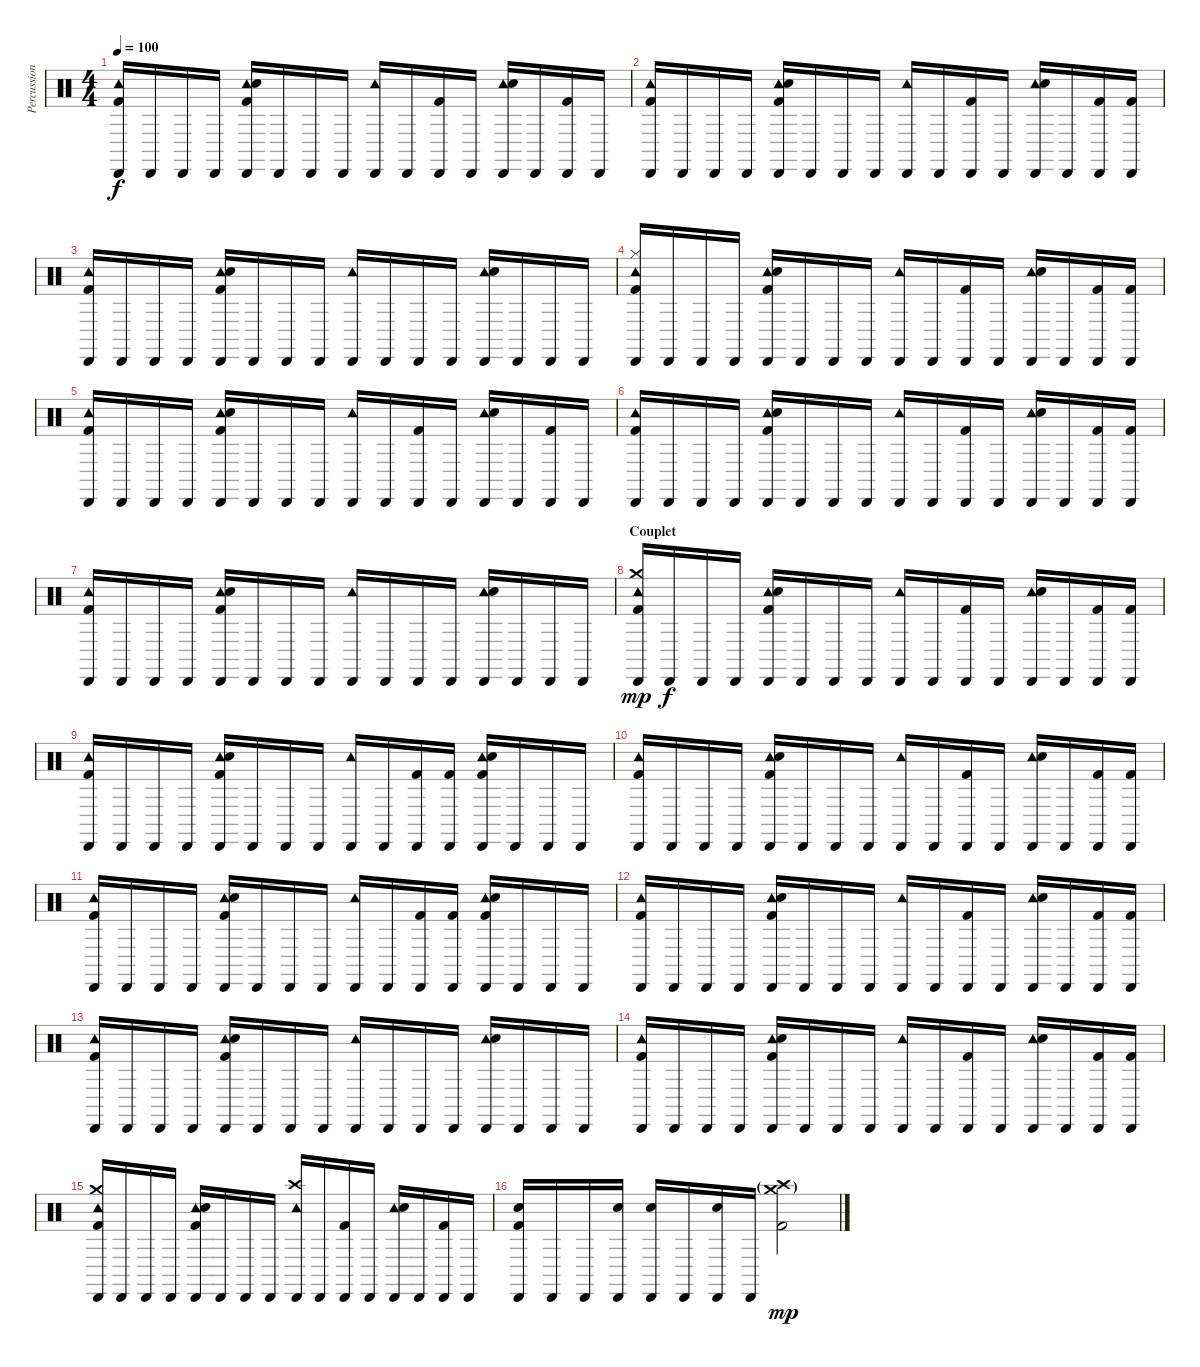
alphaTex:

\track ("Percussions" "Percussion") {instrument percussion}
\staff {score}
\articulation defaults
\ts (4 4)
\tempo 100
\clef neutral
\ks c
("Cabasa (hit)" "Tambourine (hit)" "Kick (hit) 2").16{dy f} "Cabasa (hit)".16 "Cabasa (hit)".16 "Cabasa (hit)".16 ("Cabasa (hit)" "Tambourine (hit)" "Hand Clap (hit)" "Kick (hit) 2").16 "Cabasa (hit)".16 "Cabasa (hit)".16 "Cabasa (hit)".16 ("Cabasa (hit)" "Tambourine (hit)").16 "Cabasa (hit)".16 ("Cabasa (hit)" "Kick (hit) 2").16 "Cabasa (hit)".16 ("Cabasa (hit)" "Tambourine (hit)" "Hand Clap (hit)").16 "Cabasa (hit)".16 ("Cabasa (hit)" "Kick (hit) 2").16 "Cabasa (hit)".16 |
("Cabasa (hit)" "Tambourine (hit)" "Kick (hit) 2").16 "Cabasa (hit)".16 "Cabasa (hit)".16 "Cabasa (hit)".16 ("Cabasa (hit)" "Tambourine (hit)" "Hand Clap (hit)" "Kick (hit) 2").16 "Cabasa (hit)".16 "Cabasa (hit)".16 "Cabasa (hit)".16 ("Cabasa (hit)" "Tambourine (hit)").16 "Cabasa (hit)".16 ("Cabasa (hit)" "Kick (hit) 2").16 "Cabasa (hit)".16 ("Cabasa (hit)" "Tambourine (hit)" "Hand Clap (hit)").16 "Cabasa (hit)".16 ("Cabasa (hit)" "Kick (hit) 2").16 ("Cabasa (hit)" "Kick (hit) 2").16 |
("Cabasa (hit)" "Tambourine (hit)" "Kick (hit) 2").16 "Cabasa (hit)".16 "Cabasa (hit)".16 "Cabasa (hit)".16 ("Cabasa (hit)" "Tambourine (hit)" "Hand Clap (hit)" "Kick (hit) 2").16 "Cabasa (hit)".16 "Cabasa (hit)".16 "Cabasa (hit)".16 ("Cabasa (hit)" "Tambourine (hit)").16 "Cabasa (hit)".16 "Cabasa (hit)".16 "Cabasa (hit)".16 ("Cabasa (hit)" "Tambourine (hit)" "Hand Clap (hit)").16 "Cabasa (hit)".16 "Cabasa (hit)".16 "Cabasa (hit)".16 |
("Cabasa (hit)" "Tambourine (hit)" "Hi-Hat (closed)" "Kick (hit) 2").16 "Cabasa (hit)".16 "Cabasa (hit)".16 "Cabasa (hit)".16 ("Cabasa (hit)" "Tambourine (hit)" "Hand Clap (hit)" "Kick (hit) 2").16 "Cabasa (hit)".16 "Cabasa (hit)".16 "Cabasa (hit)".16 ("Cabasa (hit)" "Tambourine (hit)").16 "Cabasa (hit)".16 ("Cabasa (hit)" "Kick (hit) 2").16 "Cabasa (hit)".16 ("Cabasa (hit)" "Tambourine (hit)" "Hand Clap (hit)").16 "Cabasa (hit)".16 ("Cabasa (hit)" "Kick (hit) 2").16 ("Cabasa (hit)" "Kick (hit) 2").16 |
("Cabasa (hit)" "Tambourine (hit)" "Kick (hit) 2").16 "Cabasa (hit)".16 "Cabasa (hit)".16 "Cabasa (hit)".16 ("Cabasa (hit)" "Tambourine (hit)" "Hand Clap (hit)" "Kick (hit) 2").16 "Cabasa (hit)".16 "Cabasa (hit)".16 "Cabasa (hit)".16 ("Cabasa (hit)" "Tambourine (hit)").16 "Cabasa (hit)".16 ("Cabasa (hit)" "Kick (hit) 2").16 "Cabasa (hit)".16 ("Cabasa (hit)" "Tambourine (hit)" "Hand Clap (hit)").16 "Cabasa (hit)".16 ("Cabasa (hit)" "Kick (hit) 2").16 "Cabasa (hit)".16 |
("Cabasa (hit)" "Tambourine (hit)" "Kick (hit) 2").16 "Cabasa (hit)".16 "Cabasa (hit)".16 "Cabasa (hit)".16 ("Cabasa (hit)" "Tambourine (hit)" "Hand Clap (hit)" "Kick (hit) 2").16 "Cabasa (hit)".16 "Cabasa (hit)".16 "Cabasa (hit)".16 ("Cabasa (hit)" "Tambourine (hit)").16 "Cabasa (hit)".16 ("Cabasa (hit)" "Kick (hit) 2").16 "Cabasa (hit)".16 ("Cabasa (hit)" "Tambourine (hit)" "Hand Clap (hit)").16 "Cabasa (hit)".16 ("Cabasa (hit)" "Kick (hit) 2").16 ("Cabasa (hit)" "Kick (hit) 2").16 |
("Cabasa (hit)" "Tambourine (hit)" "Kick (hit) 2").16 "Cabasa (hit)".16 "Cabasa (hit)".16 "Cabasa (hit)".16 ("Cabasa (hit)" "Tambourine (hit)" "Hand Clap (hit)" "Kick (hit) 2").16 "Cabasa (hit)".16 "Cabasa (hit)".16 "Cabasa (hit)".16 ("Cabasa (hit)" "Tambourine (hit)").16 "Cabasa (hit)".16 "Cabasa (hit)".16 "Cabasa (hit)".16 ("Cabasa (hit)" "Tambourine (hit)" "Hand Clap (hit)").16 "Cabasa (hit)".16 "Cabasa (hit)".16 "Cabasa (hit)".16 |
\section ("" "Couplet")
("Cabasa (hit)" "Tambourine (hit)" "Crash medium (hit)" "Kick (hit) 2").16{dy mp} "Cabasa (hit)".16{dy f} "Cabasa (hit)".16 "Cabasa (hit)".16 ("Cabasa (hit)" "Tambourine (hit)" "Hand Clap (hit)" "Kick (hit) 2").16 "Cabasa (hit)".16 "Cabasa (hit)".16 "Cabasa (hit)".16 ("Cabasa (hit)" "Tambourine (hit)").16 "Cabasa (hit)".16 ("Cabasa (hit)" "Kick (hit) 2").16 "Cabasa (hit)".16 ("Cabasa (hit)" "Tambourine (hit)" "Hand Clap (hit)").16 "Cabasa (hit)".16 ("Cabasa (hit)" "Kick (hit) 2").16 ("Cabasa (hit)" "Kick (hit) 2").16 |
("Cabasa (hit)" "Tambourine (hit)" "Kick (hit) 2").16 "Cabasa (hit)".16 "Cabasa (hit)".16 "Cabasa (hit)".16 ("Cabasa (hit)" "Tambourine (hit)" "Hand Clap (hit)" "Kick (hit) 2").16 "Cabasa (hit)".16 "Cabasa (hit)".16 "Cabasa (hit)".16 ("Cabasa (hit)" "Tambourine (hit)").16 "Cabasa (hit)".16 ("Cabasa (hit)" "Kick (hit) 2").16 ("Cabasa (hit)" "Kick (hit) 2").16 ("Cabasa (hit)" "Tambourine (hit)" "Hand Clap (hit)" "Kick (hit) 2").16 "Cabasa (hit)".16 "Cabasa (hit)".16 "Cabasa (hit)".16 |
("Cabasa (hit)" "Tambourine (hit)" "Kick (hit) 2").16 "Cabasa (hit)".16 "Cabasa (hit)".16 "Cabasa (hit)".16 ("Cabasa (hit)" "Tambourine (hit)" "Hand Clap (hit)" "Kick (hit) 2").16 "Cabasa (hit)".16 "Cabasa (hit)".16 "Cabasa (hit)".16 ("Cabasa (hit)" "Tambourine (hit)").16 "Cabasa (hit)".16 ("Cabasa (hit)" "Kick (hit) 2").16 "Cabasa (hit)".16 ("Cabasa (hit)" "Tambourine (hit)" "Hand Clap (hit)").16 "Cabasa (hit)".16 ("Cabasa (hit)" "Kick (hit) 2").16 ("Cabasa (hit)" "Kick (hit) 2").16 |
("Cabasa (hit)" "Tambourine (hit)" "Kick (hit) 2").16 "Cabasa (hit)".16 "Cabasa (hit)".16 "Cabasa (hit)".16 ("Cabasa (hit)" "Tambourine (hit)" "Hand Clap (hit)" "Kick (hit) 2").16 "Cabasa (hit)".16 "Cabasa (hit)".16 "Cabasa (hit)".16 ("Cabasa (hit)" "Tambourine (hit)").16 "Cabasa (hit)".16 ("Cabasa (hit)" "Kick (hit) 2").16 ("Cabasa (hit)" "Kick (hit) 2").16 ("Cabasa (hit)" "Tambourine (hit)" "Hand Clap (hit)" "Kick (hit) 2").16 "Cabasa (hit)".16 "Cabasa (hit)".16 "Cabasa (hit)".16 |
("Cabasa (hit)" "Tambourine (hit)" "Kick (hit) 2").16 "Cabasa (hit)".16 "Cabasa (hit)".16 "Cabasa (hit)".16 ("Cabasa (hit)" "Tambourine (hit)" "Hand Clap (hit)" "Kick (hit) 2").16 "Cabasa (hit)".16 "Cabasa (hit)".16 "Cabasa (hit)".16 ("Cabasa (hit)" "Tambourine (hit)").16 "Cabasa (hit)".16 ("Cabasa (hit)" "Kick (hit) 2").16 "Cabasa (hit)".16 ("Cabasa (hit)" "Tambourine (hit)" "Hand Clap (hit)").16 "Cabasa (hit)".16 ("Cabasa (hit)" "Kick (hit) 2").16 ("Cabasa (hit)" "Kick (hit) 2").16 |
("Cabasa (hit)" "Tambourine (hit)" "Kick (hit) 2").16 "Cabasa (hit)".16 "Cabasa (hit)".16 "Cabasa (hit)".16 ("Cabasa (hit)" "Tambourine (hit)" "Hand Clap (hit)" "Kick (hit) 2").16 "Cabasa (hit)".16 "Cabasa (hit)".16 "Cabasa (hit)".16 ("Cabasa (hit)" "Tambourine (hit)").16 "Cabasa (hit)".16 "Cabasa (hit)".16 "Cabasa (hit)".16 ("Cabasa (hit)" "Tambourine (hit)" "Hand Clap (hit)").16 "Cabasa (hit)".16 "Cabasa (hit)".16 "Cabasa (hit)".16 |
("Cabasa (hit)" "Tambourine (hit)" "Kick (hit) 2").16 "Cabasa (hit)".16 "Cabasa (hit)".16 "Cabasa (hit)".16 ("Cabasa (hit)" "Tambourine (hit)" "Hand Clap (hit)" "Kick (hit) 2").16 "Cabasa (hit)".16 "Cabasa (hit)".16 "Cabasa (hit)".16 ("Cabasa (hit)" "Tambourine (hit)").16 "Cabasa (hit)".16 ("Cabasa (hit)" "Kick (hit) 2").16 "Cabasa (hit)".16 ("Cabasa (hit)" "Tambourine (hit)" "Hand Clap (hit)").16 "Cabasa (hit)".16 ("Cabasa (hit)" "Kick (hit) 2").16 ("Cabasa (hit)" "Kick (hit) 2").16 |
("Cabasa (hit)" "Tambourine (hit)" "Crash medium (hit)" "Kick (hit) 2").16 "Cabasa (hit)".16 "Cabasa (hit)".16 "Cabasa (hit)".16 ("Cabasa (hit)" "Tambourine (hit)" "Hand Clap (hit)" "Kick (hit) 2").16 "Cabasa (hit)".16 "Cabasa (hit)".16 "Cabasa (hit)".16 ("Cabasa (hit)" "Tambourine (hit)" "Crash high (hit)").16 "Cabasa (hit)".16 ("Cabasa (hit)" "Kick (hit) 2").16 "Cabasa (hit)".16 ("Cabasa (hit)" "Tambourine (hit)" "Hand Clap (hit)").16 "Cabasa (hit)".16 ("Cabasa (hit)" "Kick (hit) 2").16 "Cabasa (hit)".16 |
("Cabasa (hit)" "Snare (hit) 2" "Kick (hit) 2").16 "Cabasa (hit)".16 "Cabasa (hit)".16 ("Cabasa (hit)" "Snare (hit) 2").16 ("Cabasa (hit)" "Snare (hit) 2").16 "Cabasa (hit)".16 ("Cabasa (hit)" "Snare (hit) 2").16 "Cabasa (hit)".16 ("Crash medium (hit)"{g} "Crash high (hit)"{g} "Kick (hit) 2").2{dy mp}
